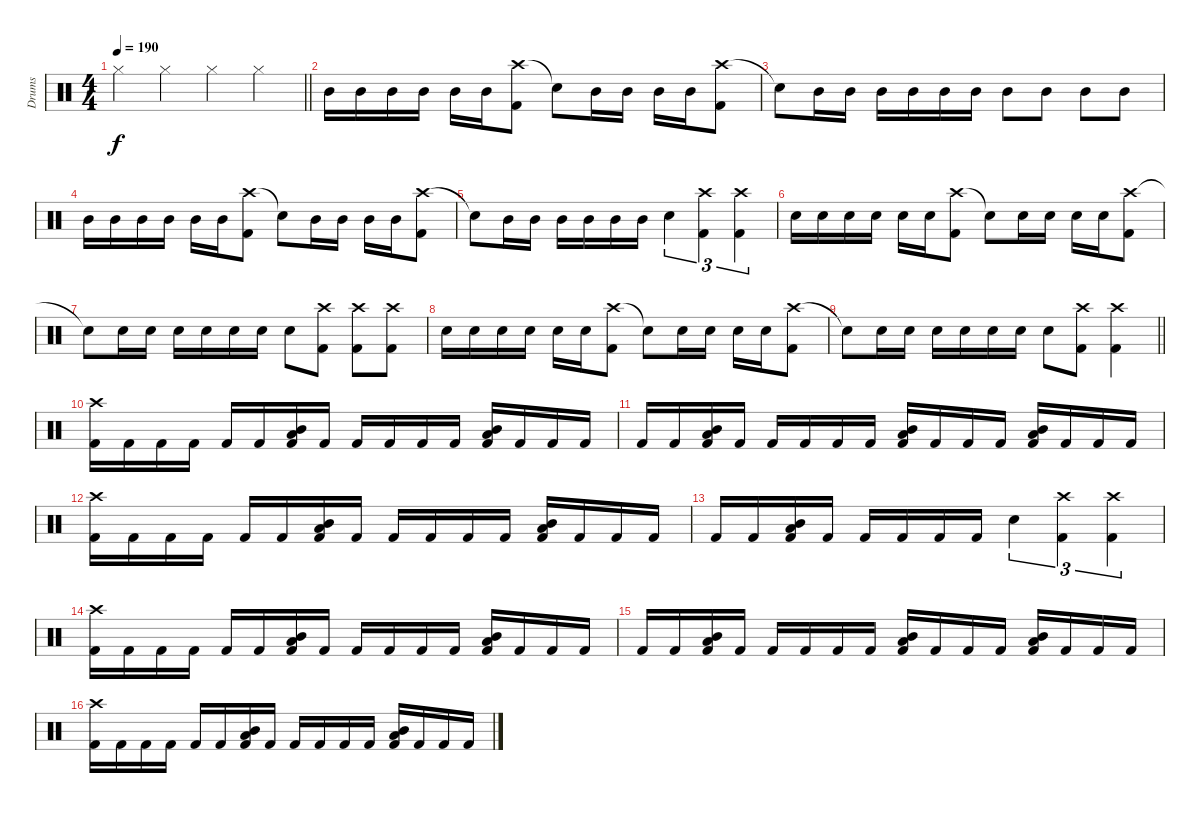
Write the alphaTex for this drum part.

\track ("Drums" "Drums") {instrument percussion}
\staff {score}
\articulation defaults
\ts (4 4)
\tempo 190
\clef neutral
\barLineRight lightlight
\ks c "Hi-Hat (closed)".4{dy f} "Hi-Hat (closed)".4 "Hi-Hat (closed)".4 "Hi-Hat (closed)".4
|
"Mid Tom (hit)".16 "Mid Tom (hit)".16 "Mid Tom (hit)".16 "Mid Tom (hit)".16 "Mid Tom (hit)".16 "Mid Tom (hit)".16 ("Crash high (hit)" "Kick (hit) 2").8 "Snare (hit)"{t}.8 "Mid Tom (hit)".16 "Mid Tom (hit)".16 "Mid Tom (hit)".16 "Mid Tom (hit)".16 ("Crash high (hit)" "Kick (hit) 2").8 |
"Snare (hit)"{t}.8 "Mid Tom (hit)".16 "Mid Tom (hit)".16 "Mid Tom (hit)".16 "Mid Tom (hit)".16 "Mid Tom (hit)".16 "Mid Tom (hit)".16 "Mid Tom (hit)".8 "Mid Tom (hit)".8 "Mid Tom (hit)".8 "Mid Tom (hit)".8 |
"Mid Tom (hit)".16 "Mid Tom (hit)".16 "Mid Tom (hit)".16 "Mid Tom (hit)".16 "Mid Tom (hit)".16 "Mid Tom (hit)".16 ("Crash high (hit)" "Kick (hit) 2").8 "Snare (hit)"{t}.8 "Mid Tom (hit)".16 "Mid Tom (hit)".16 "Mid Tom (hit)".16 "Mid Tom (hit)".16 ("Crash high (hit)" "Kick (hit) 2").8 |
"Snare (hit)"{t}.8 "Mid Tom (hit)".16 "Mid Tom (hit)".16 "Mid Tom (hit)".16 "Mid Tom (hit)".16 "Mid Tom (hit)".16 "Mid Tom (hit)".16 "Snare (hit) 2".4{tu (3 2)} ("Crash high (hit)" "Kick (hit) 2").4{tu (3 2)} ("Crash high (hit)" "Kick (hit) 2").4{tu (3 2)} |
"Snare (hit) 2".16 "Snare (hit) 2".16 "Snare (hit) 2".16 "Snare (hit) 2".16 "Snare (hit) 2".16 "Snare (hit) 2".16 ("Crash high (hit)" "Kick (hit) 2").8 "Snare (hit)"{t}.8 "Snare (hit) 2".16 "Snare (hit) 2".16 "Snare (hit) 2".16 "Snare (hit) 2".16 ("Crash high (hit)" "Kick (hit) 2").8 |
"Snare (hit)"{t}.8 "Snare (hit) 2".16 "Snare (hit) 2".16 "Snare (hit) 2".16 "Snare (hit) 2".16 "Snare (hit) 2".16 "Snare (hit) 2".16 "Snare (hit) 2".8 ("Crash high (hit)" "Kick (hit) 2").8 ("Crash high (hit)" "Kick (hit) 2").8 ("Crash high (hit)" "Kick (hit) 2").8 |
"Snare (hit) 2".16 "Snare (hit) 2".16 "Snare (hit) 2".16 "Snare (hit) 2".16 "Snare (hit) 2".16 "Snare (hit) 2".16 ("Crash high (hit)" "Kick (hit) 2").8 "Snare (hit)"{t}.8 "Snare (hit) 2".16 "Snare (hit) 2".16 "Snare (hit) 2".16 "Snare (hit) 2".16 ("Crash high (hit)" "Kick (hit) 2").8 |
\barLineRight lightlight "Snare (hit)"{t}.8 "Snare (hit) 2".16 "Snare (hit) 2".16 "Snare (hit) 2".16 "Snare (hit) 2".16 "Snare (hit) 2".16 "Snare (hit) 2".16 "Snare (hit) 2".8
("Crash high (hit)" "Kick (hit) 2").8 ("Crash high (hit)" "Kick (hit) 2").4 |
("Crash high (hit)" "Kick (hit) 2").16 "Kick (hit) 2".16 "Kick (hit) 2".16 "Kick (hit) 2".16 "Kick (hit) 2".16 "Kick (hit) 2".16 ("Mid Tom (hit)" "Low Tom (hit)" "Kick (hit) 2").16 "Kick (hit) 2".16 "Kick (hit) 2".16 "Kick (hit) 2".16 "Kick (hit) 2".16 "Kick (hit) 2".16 ("Mid Tom (hit)" "Low Tom (hit)" "Kick (hit) 2").16 "Kick (hit) 2".16 "Kick (hit) 2".16 "Kick (hit) 2".16 |
"Kick (hit) 2".16 "Kick (hit) 2".16 ("Mid Tom (hit)" "Low Tom (hit)" "Kick (hit) 2").16 "Kick (hit) 2".16 "Kick (hit) 2".16 "Kick (hit) 2".16 "Kick (hit) 2".16 "Kick (hit) 2".16 ("Mid Tom (hit)" "Low Tom (hit)" "Kick (hit) 2").16 "Kick (hit) 2".16 "Kick (hit) 2".16 "Kick (hit) 2".16 ("Mid Tom (hit)" "Low Tom (hit)" "Kick (hit) 2").16 "Kick (hit) 2".16 "Kick (hit) 2".16 "Kick (hit) 2".16 |
("Crash high (hit)" "Kick (hit) 2").16 "Kick (hit) 2".16 "Kick (hit) 2".16 "Kick (hit) 2".16 "Kick (hit) 2".16 "Kick (hit) 2".16 ("Mid Tom (hit)" "Low Tom (hit)" "Kick (hit) 2").16 "Kick (hit) 2".16 "Kick (hit) 2".16 "Kick (hit) 2".16 "Kick (hit) 2".16 "Kick (hit) 2".16 ("Mid Tom (hit)" "Low Tom (hit)" "Kick (hit) 2").16 "Kick (hit) 2".16 "Kick (hit) 2".16 "Kick (hit) 2".16 |
"Kick (hit) 2".16 "Kick (hit) 2".16 ("Mid Tom (hit)" "Low Tom (hit)" "Kick (hit) 2").16 "Kick (hit) 2".16 "Kick (hit) 2".16 "Kick (hit) 2".16 "Kick (hit) 2".16 "Kick (hit) 2".16 "Snare (hit) 2".4{tu (3 2)} ("Crash high (hit)" "Kick (hit) 2").4{tu (3 2)} ("Crash high (hit)" "Kick (hit) 2").4{tu (3 2)} |
("Crash high (hit)" "Kick (hit) 2").16 "Kick (hit) 2".16 "Kick (hit) 2".16 "Kick (hit) 2".16 "Kick (hit) 2".16 "Kick (hit) 2".16 ("Mid Tom (hit)" "Low Tom (hit)" "Kick (hit) 2").16 "Kick (hit) 2".16 "Kick (hit) 2".16 "Kick (hit) 2".16 "Kick (hit) 2".16 "Kick (hit) 2".16 ("Mid Tom (hit)" "Low Tom (hit)" "Kick (hit) 2").16 "Kick (hit) 2".16 "Kick (hit) 2".16 "Kick (hit) 2".16 |
"Kick (hit) 2".16 "Kick (hit) 2".16 ("Mid Tom (hit)" "Low Tom (hit)" "Kick (hit) 2").16 "Kick (hit) 2".16 "Kick (hit) 2".16 "Kick (hit) 2".16 "Kick (hit) 2".16 "Kick (hit) 2".16 ("Mid Tom (hit)" "Low Tom (hit)" "Kick (hit) 2").16 "Kick (hit) 2".16 "Kick (hit) 2".16 "Kick (hit) 2".16 ("Mid Tom (hit)" "Low Tom (hit)" "Kick (hit) 2").16 "Kick (hit) 2".16 "Kick (hit) 2".16 "Kick (hit) 2".16 |
("Crash high (hit)" "Kick (hit) 2").16 "Kick (hit) 2".16 "Kick (hit) 2".16 "Kick (hit) 2".16 "Kick (hit) 2".16 "Kick (hit) 2".16 ("Mid Tom (hit)" "Low Tom (hit)" "Kick (hit) 2").16 "Kick (hit) 2".16 "Kick (hit) 2".16 "Kick (hit) 2".16 "Kick (hit) 2".16 "Kick (hit) 2".16 ("Mid Tom (hit)" "Low Tom (hit)" "Kick (hit) 2").16 "Kick (hit) 2".16 "Kick (hit) 2".16 "Kick (hit) 2".16
